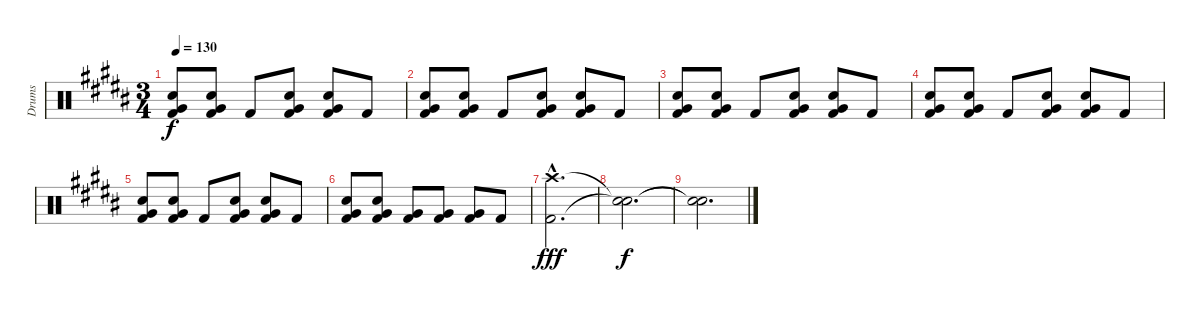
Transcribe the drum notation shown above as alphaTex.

\track ("Drums" "Drums") {instrument percussion}
\staff {score}
\articulation defaults
\ts (3 4)
\section ("" "")
\tempo 130
\clef neutral
\ks b
("Electric Snare (hit)" "Very Low Tom (hit)" "Kick (hit) 2").8{dy f} ("Electric Snare (hit)" "Very Low Tom (hit)" "Kick (hit) 2").8 "Kick (hit) 2".8 ("Electric Snare (hit)" "Very Low Tom (hit)" "Kick (hit) 2").8 ("Electric Snare (hit)" "Very Low Tom (hit)" "Kick (hit) 2").8 "Kick (hit) 2".8 |
("Electric Snare (hit)" "Very Low Tom (hit)" "Kick (hit) 2").8 ("Electric Snare (hit)" "Very Low Tom (hit)" "Kick (hit) 2").8 "Kick (hit) 2".8 ("Electric Snare (hit)" "Very Low Tom (hit)" "Kick (hit) 2").8 ("Electric Snare (hit)" "Very Low Tom (hit)" "Kick (hit) 2").8 "Kick (hit) 2".8 |
("Electric Snare (hit)" "Very Low Tom (hit)" "Kick (hit) 2").8 ("Electric Snare (hit)" "Very Low Tom (hit)" "Kick (hit) 2").8 "Kick (hit) 2".8 ("Electric Snare (hit)" "Very Low Tom (hit)" "Kick (hit) 2").8 ("Electric Snare (hit)" "Very Low Tom (hit)" "Kick (hit) 2").8 "Kick (hit) 2".8 |
("Electric Snare (hit)" "Very Low Tom (hit)" "Kick (hit) 2").8 ("Electric Snare (hit)" "Very Low Tom (hit)" "Kick (hit) 2").8 "Kick (hit) 2".8 ("Electric Snare (hit)" "Very Low Tom (hit)" "Kick (hit) 2").8 ("Electric Snare (hit)" "Very Low Tom (hit)" "Kick (hit) 2").8 "Kick (hit) 2".8 |
("Electric Snare (hit)" "Very Low Tom (hit)" "Kick (hit) 2").8 ("Electric Snare (hit)" "Very Low Tom (hit)" "Kick (hit) 2").8 "Kick (hit) 2".8 ("Electric Snare (hit)" "Very Low Tom (hit)" "Kick (hit) 2").8 ("Electric Snare (hit)" "Very Low Tom (hit)" "Kick (hit) 2").8 "Kick (hit) 2".8 |
("Electric Snare (hit)" "Very Low Tom (hit)" "Kick (hit) 2").8 ("Electric Snare (hit)" "Very Low Tom (hit)" "Kick (hit) 2").8 ("Very Low Tom (hit)" "Kick (hit) 2").8 ("Very Low Tom (hit)" "Kick (hit) 2").8 ("Very Low Tom (hit)" "Kick (hit) 2").8 "Kick (hit) 2".8 |
("Crash high (hit)"{hac} "Kick (hit) 2"{hac}).2{d dy fff} |
("Snare (hit)"{t} "Snare (hit)"{t}).2{d dy f} |
("Snare (hit)"{t} "Snare (hit)"{t}).2{d}
